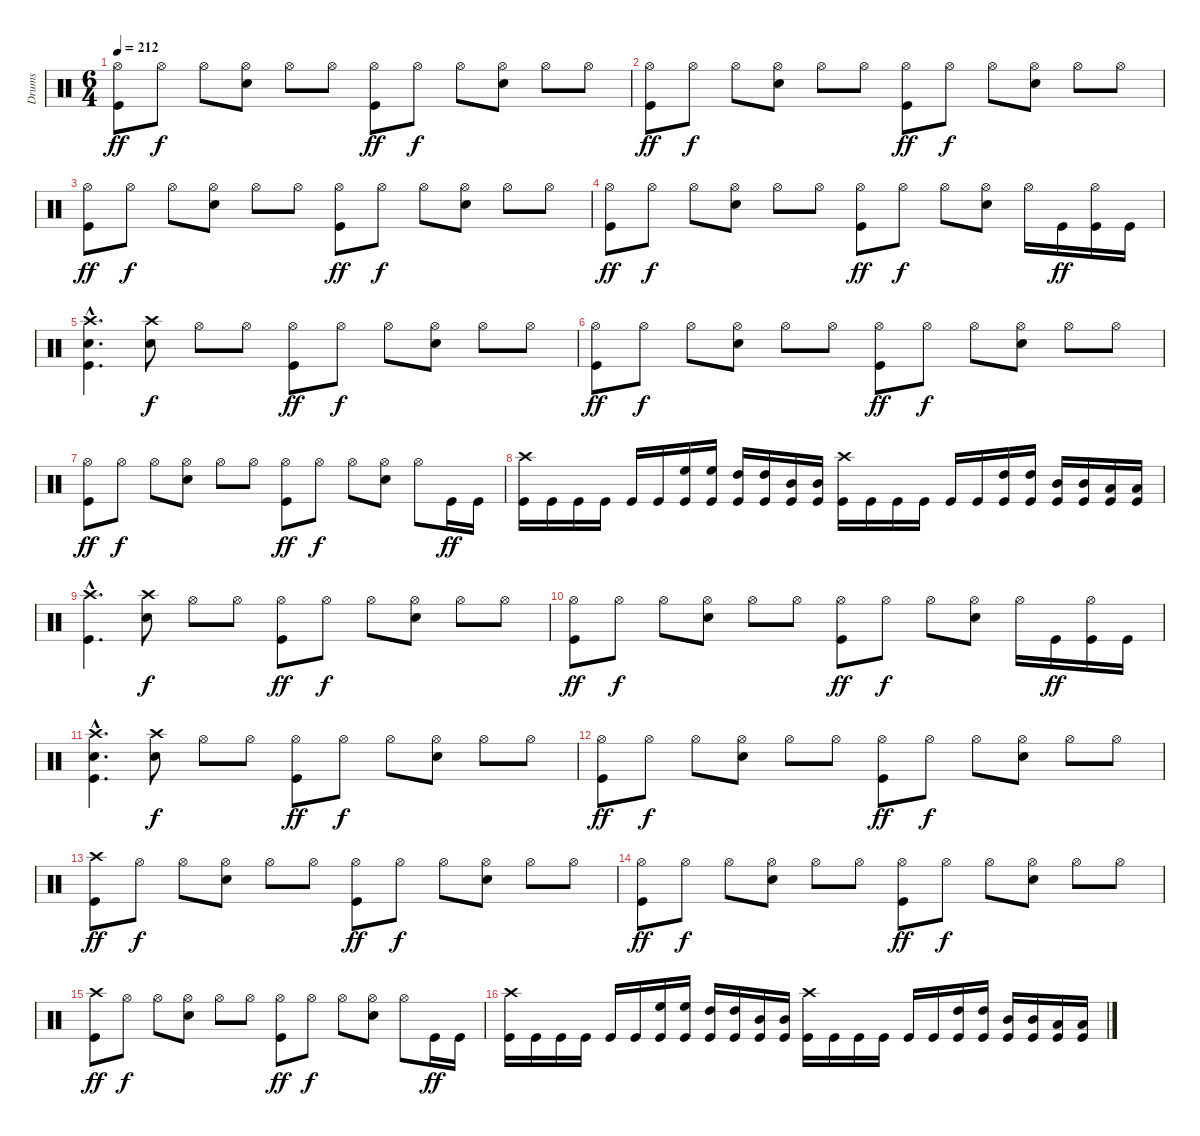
\track ("Drums" "Drums") {instrument percussion}
\staff {score}
\articulation defaults
\ts (6 4)
\tempo 212
\clef neutral
\ks c
("Hi-Hat (open)" "Kick (hit)").8{dy ff} "Hi-Hat (open)".8{dy f} "Hi-Hat (open)".8 ("Hi-Hat (open)" "Snare (hit) 2").8 "Hi-Hat (open)".8 "Hi-Hat (open)".8 ("Hi-Hat (open)" "Kick (hit)").8{dy ff} "Hi-Hat (open)".8{dy f} "Hi-Hat (open)".8 ("Hi-Hat (open)" "Snare (hit) 2").8 "Hi-Hat (open)".8 "Hi-Hat (open)".8 |
("Hi-Hat (open)" "Kick (hit)").8{dy ff} "Hi-Hat (open)".8{dy f} "Hi-Hat (open)".8 ("Hi-Hat (open)" "Snare (hit) 2").8 "Hi-Hat (open)".8 "Hi-Hat (open)".8 ("Hi-Hat (open)" "Kick (hit)").8{dy ff} "Hi-Hat (open)".8{dy f} "Hi-Hat (open)".8 ("Hi-Hat (open)" "Snare (hit) 2").8 "Hi-Hat (open)".8 "Hi-Hat (open)".8 |
("Hi-Hat (open)" "Kick (hit)").8{dy ff} "Hi-Hat (open)".8{dy f} "Hi-Hat (open)".8 ("Hi-Hat (open)" "Snare (hit) 2").8 "Hi-Hat (open)".8 "Hi-Hat (open)".8 ("Hi-Hat (open)" "Kick (hit)").8{dy ff} "Hi-Hat (open)".8{dy f} "Hi-Hat (open)".8 ("Hi-Hat (open)" "Snare (hit) 2").8 "Hi-Hat (open)".8 "Hi-Hat (open)".8 |
("Hi-Hat (open)" "Kick (hit)").8{dy ff} "Hi-Hat (open)".8{dy f} "Hi-Hat (open)".8 ("Hi-Hat (open)" "Snare (hit) 2").8 "Hi-Hat (open)".8 "Hi-Hat (open)".8 ("Hi-Hat (open)" "Kick (hit)").8{dy ff} "Hi-Hat (open)".8{dy f} "Hi-Hat (open)".8 ("Hi-Hat (open)" "Snare (hit) 2").8 "Hi-Hat (open)".16 "Kick (hit)".16{dy ff} ("Hi-Hat (open)" "Kick (hit)").16 "Kick (hit)".16 |
("Crash high (hit)"{hac} "Snare (hit) 2"{hac} "Kick (hit)"{hac}).4{d} ("Crash high (hit)" "Snare (hit) 2").8{dy f} "Hi-Hat (open)".8 "Hi-Hat (open)".8 ("Hi-Hat (open)" "Kick (hit)").8{dy ff} "Hi-Hat (open)".8{dy f} "Hi-Hat (open)".8 ("Hi-Hat (open)" "Snare (hit) 2").8 "Hi-Hat (open)".8 "Hi-Hat (open)".8 |
("Hi-Hat (open)" "Kick (hit)").8{dy ff} "Hi-Hat (open)".8{dy f} "Hi-Hat (open)".8 ("Hi-Hat (open)" "Snare (hit) 2").8 "Hi-Hat (open)".8 "Hi-Hat (open)".8 ("Hi-Hat (open)" "Kick (hit)").8{dy ff} "Hi-Hat (open)".8{dy f} "Hi-Hat (open)".8 ("Hi-Hat (open)" "Snare (hit) 2").8 "Hi-Hat (open)".8 "Hi-Hat (open)".8 |
("Hi-Hat (open)" "Kick (hit)").8{dy ff} "Hi-Hat (open)".8{dy f} "Hi-Hat (open)".8 ("Hi-Hat (open)" "Snare (hit) 2").8 "Hi-Hat (open)".8 "Hi-Hat (open)".8 ("Hi-Hat (open)" "Kick (hit)").8{dy ff} "Hi-Hat (open)".8{dy f} "Hi-Hat (open)".8 ("Hi-Hat (open)" "Snare (hit) 2").8 "Hi-Hat (open)".8 "Kick (hit)".16{dy ff} "Kick (hit)".16 |
("Crash high (hit)" "Kick (hit)").16 "Kick (hit)".16 "Kick (hit)".16 "Kick (hit)".16 "Kick (hit)".16 "Kick (hit)".16 ("High Floor Tom (hit)" "Kick (hit)").16 ("High Floor Tom (hit)" "Kick (hit)").16 ("High Tom (hit)" "Kick (hit)").16 ("High Tom (hit)" "Kick (hit)").16 ("Mid Tom (hit)" "Kick (hit)").16 ("Mid Tom (hit)" "Kick (hit)").16 ("Crash high (hit)" "Kick (hit)").16 "Kick (hit)".16 "Kick (hit)".16 "Kick (hit)".16 "Kick (hit)".16 "Kick (hit)".16 ("High Tom (hit)" "Kick (hit)").16 ("High Tom (hit)" "Kick (hit)").16 ("Mid Tom (hit)" "Kick (hit)").16 ("Mid Tom (hit)" "Kick (hit)").16 ("Low Tom (hit)" "Kick (hit)").16 ("Low Tom (hit)" "Kick (hit)").16 |
("Crash high (hit)"{hac} "Kick (hit)"{hac}).4{d} ("Crash high (hit)" "Snare (hit) 2").8{dy f} "Hi-Hat (open)".8 "Hi-Hat (open)".8 ("Hi-Hat (open)" "Kick (hit)").8{dy ff} "Hi-Hat (open)".8{dy f} "Hi-Hat (open)".8 ("Hi-Hat (open)" "Snare (hit) 2").8 "Hi-Hat (open)".8 "Hi-Hat (open)".8 |
("Hi-Hat (open)" "Kick (hit)").8{dy ff} "Hi-Hat (open)".8{dy f} "Hi-Hat (open)".8 ("Hi-Hat (open)" "Snare (hit) 2").8 "Hi-Hat (open)".8 "Hi-Hat (open)".8 ("Hi-Hat (open)" "Kick (hit)").8{dy ff} "Hi-Hat (open)".8{dy f} "Hi-Hat (open)".8 ("Hi-Hat (open)" "Snare (hit) 2").8 "Hi-Hat (open)".16 "Kick (hit)".16{dy ff} ("Hi-Hat (open)" "Kick (hit)").16 "Kick (hit)".16 |
("Crash high (hit)"{hac} "Snare (hit) 2"{hac} "Kick (hit)"{hac}).4{d} ("Crash high (hit)" "Snare (hit) 2").8{dy f} "Hi-Hat (open)".8 "Hi-Hat (open)".8 ("Hi-Hat (open)" "Kick (hit)").8{dy ff} "Hi-Hat (open)".8{dy f} "Hi-Hat (open)".8 ("Hi-Hat (open)" "Snare (hit) 2").8 "Hi-Hat (open)".8 "Hi-Hat (open)".8 |
("Hi-Hat (open)" "Kick (hit)").8{dy ff} "Hi-Hat (open)".8{dy f} "Hi-Hat (open)".8 ("Hi-Hat (open)" "Snare (hit) 2").8 "Hi-Hat (open)".8 "Hi-Hat (open)".8 ("Hi-Hat (open)" "Kick (hit)").8{dy ff} "Hi-Hat (open)".8{dy f} "Hi-Hat (open)".8 ("Hi-Hat (open)" "Snare (hit) 2").8 "Hi-Hat (open)".8 "Hi-Hat (open)".8 |
("Crash high (hit)" "Kick (hit)").8{dy ff} "Hi-Hat (open)".8{dy f} "Hi-Hat (open)".8 ("Hi-Hat (open)" "Snare (hit) 2").8 "Hi-Hat (open)".8 "Hi-Hat (open)".8 ("Hi-Hat (open)" "Kick (hit)").8{dy ff} "Hi-Hat (open)".8{dy f} "Hi-Hat (open)".8 ("Hi-Hat (open)" "Snare (hit) 2").8 "Hi-Hat (open)".8 "Hi-Hat (open)".8 |
("Hi-Hat (open)" "Kick (hit)").8{dy ff} "Hi-Hat (open)".8{dy f} "Hi-Hat (open)".8 ("Hi-Hat (open)" "Snare (hit) 2").8 "Hi-Hat (open)".8 "Hi-Hat (open)".8 ("Hi-Hat (open)" "Kick (hit)").8{dy ff} "Hi-Hat (open)".8{dy f} "Hi-Hat (open)".8 ("Hi-Hat (open)" "Snare (hit) 2").8 "Hi-Hat (open)".8 "Hi-Hat (open)".8 |
("Crash high (hit)" "Kick (hit)").8{dy ff} "Hi-Hat (open)".8{dy f} "Hi-Hat (open)".8 ("Hi-Hat (open)" "Snare (hit) 2").8 "Hi-Hat (open)".8 "Hi-Hat (open)".8 ("Hi-Hat (open)" "Kick (hit)").8{dy ff} "Hi-Hat (open)".8{dy f} "Hi-Hat (open)".8 ("Hi-Hat (open)" "Snare (hit) 2").8 "Hi-Hat (open)".8 "Kick (hit)".16{dy ff} "Kick (hit)".16 |
("Crash high (hit)" "Kick (hit)").16 "Kick (hit)".16 "Kick (hit)".16 "Kick (hit)".16 "Kick (hit)".16 "Kick (hit)".16 ("High Floor Tom (hit)" "Kick (hit)").16 ("High Floor Tom (hit)" "Kick (hit)").16 ("High Tom (hit)" "Kick (hit)").16 ("High Tom (hit)" "Kick (hit)").16 ("Mid Tom (hit)" "Kick (hit)").16 ("Mid Tom (hit)" "Kick (hit)").16 ("Crash high (hit)" "Kick (hit)").16 "Kick (hit)".16 "Kick (hit)".16 "Kick (hit)".16 "Kick (hit)".16 "Kick (hit)".16 ("High Tom (hit)" "Kick (hit)").16 ("High Tom (hit)" "Kick (hit)").16 ("Mid Tom (hit)" "Kick (hit)").16 ("Mid Tom (hit)" "Kick (hit)").16 ("Low Tom (hit)" "Kick (hit)").16 ("Low Tom (hit)" "Kick (hit)").16
